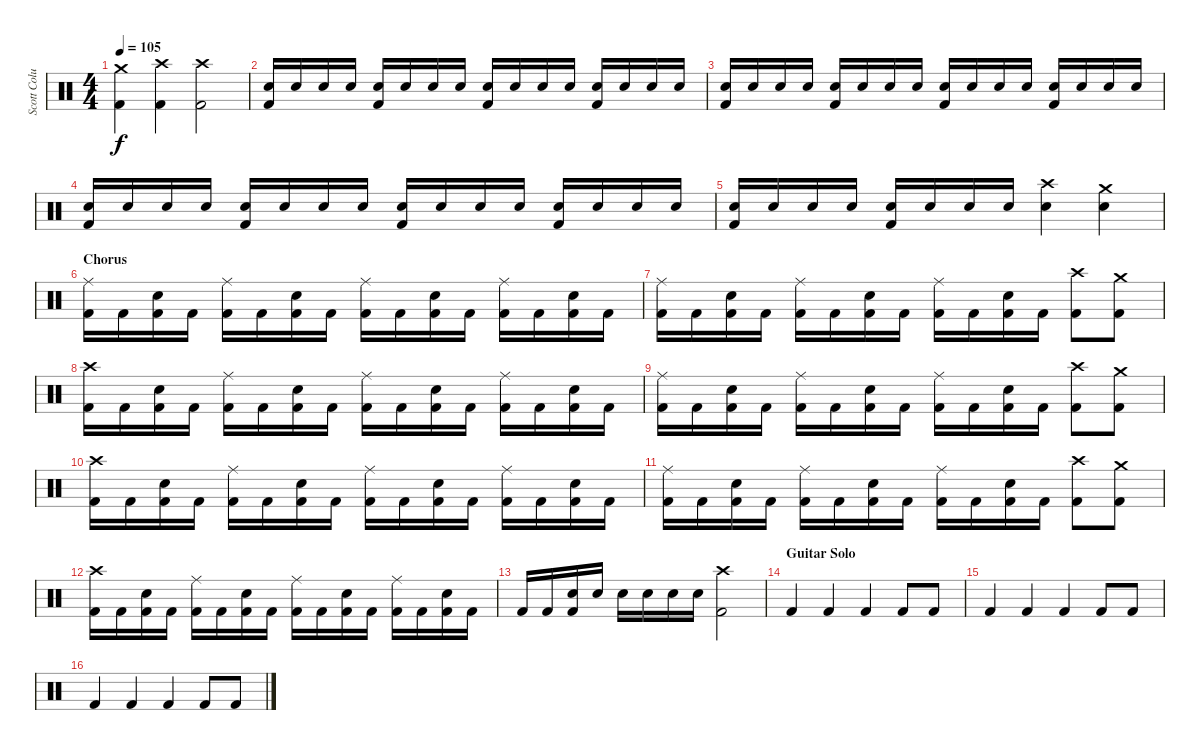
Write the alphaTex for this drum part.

\track ("Scott Columbus" "Scott Colu") {instrument percussion}
\staff {score}
\articulation defaults
\ts (4 4)
\tempo 105
\clef neutral
\ks c
("Crash medium (hit)" "Kick (hit) 2").4{dy f} ("Crash high (hit)" "Kick (hit) 2").4 ("Crash high (hit)" "Kick (hit) 2").2 |
("Kick (hit) 2" "Snare (hit) 2").16 "Snare (hit) 2".16 "Snare (hit) 2".16 "Snare (hit) 2".16 ("Kick (hit) 2" "Snare (hit) 2").16 "Snare (hit) 2".16 "Snare (hit) 2".16 "Snare (hit) 2".16 ("Kick (hit) 2" "Snare (hit) 2").16 "Snare (hit) 2".16 "Snare (hit) 2".16 "Snare (hit) 2".16 ("Kick (hit) 2" "Snare (hit) 2").16 "Snare (hit) 2".16 "Snare (hit) 2".16 "Snare (hit) 2".16 |
("Kick (hit) 2" "Snare (hit) 2").16 "Snare (hit) 2".16 "Snare (hit) 2".16 "Snare (hit) 2".16 ("Kick (hit) 2" "Snare (hit) 2").16 "Snare (hit) 2".16 "Snare (hit) 2".16 "Snare (hit) 2".16 ("Kick (hit) 2" "Snare (hit) 2").16 "Snare (hit) 2".16 "Snare (hit) 2".16 "Snare (hit) 2".16 ("Kick (hit) 2" "Snare (hit) 2").16 "Snare (hit) 2".16 "Snare (hit) 2".16 "Snare (hit) 2".16 |
("Kick (hit) 2" "Snare (hit) 2").16 "Snare (hit) 2".16 "Snare (hit) 2".16 "Snare (hit) 2".16 ("Kick (hit) 2" "Snare (hit) 2").16 "Snare (hit) 2".16 "Snare (hit) 2".16 "Snare (hit) 2".16 ("Kick (hit) 2" "Snare (hit) 2").16 "Snare (hit) 2".16 "Snare (hit) 2".16 "Snare (hit) 2".16 ("Kick (hit) 2" "Snare (hit) 2").16 "Snare (hit) 2".16 "Snare (hit) 2".16 "Snare (hit) 2".16 |
("Kick (hit) 2" "Snare (hit) 2").16 "Snare (hit) 2".16 "Snare (hit) 2".16 "Snare (hit) 2".16 ("Kick (hit) 2" "Snare (hit) 2").16 "Snare (hit) 2".16 "Snare (hit) 2".16 "Snare (hit) 2".16 ("Crash high (hit)" "Snare (hit) 2").4 ("Crash medium (hit)" "Snare (hit) 2").4 |
\section ("" "Chorus")
("Ride (middle)" "Kick (hit) 2").16{volume 10} "Kick (hit) 2".16 ("Snare (hit) 2" "Kick (hit) 2").16 "Kick (hit) 2".16 ("Ride (middle)" "Kick (hit) 2").16 "Kick (hit) 2".16 ("Snare (hit) 2" "Kick (hit) 2").16 "Kick (hit) 2".16 ("Ride (middle)" "Kick (hit) 2").16 "Kick (hit) 2".16 ("Snare (hit) 2" "Kick (hit) 2").16 "Kick (hit) 2".16 ("Ride (middle)" "Kick (hit) 2").16 "Kick (hit) 2".16 ("Snare (hit) 2" "Kick (hit) 2").16 "Kick (hit) 2".16 |
("Ride (middle)" "Kick (hit) 2").16 "Kick (hit) 2".16 ("Snare (hit) 2" "Kick (hit) 2").16 "Kick (hit) 2".16 ("Ride (middle)" "Kick (hit) 2").16 "Kick (hit) 2".16 ("Snare (hit) 2" "Kick (hit) 2").16 "Kick (hit) 2".16 ("Ride (middle)" "Kick (hit) 2").16 "Kick (hit) 2".16 ("Snare (hit) 2" "Kick (hit) 2").16 "Kick (hit) 2".16 ("Crash high (hit)" "Kick (hit) 2").8 ("Crash medium (hit)" "Kick (hit) 2").8 |
("Crash high (hit)" "Kick (hit) 2").16 "Kick (hit) 2".16 ("Snare (hit) 2" "Kick (hit) 2").16 "Kick (hit) 2".16 ("Ride (middle)" "Kick (hit) 2").16 "Kick (hit) 2".16 ("Snare (hit) 2" "Kick (hit) 2").16 "Kick (hit) 2".16 ("Ride (middle)" "Kick (hit) 2").16 "Kick (hit) 2".16 ("Snare (hit) 2" "Kick (hit) 2").16 "Kick (hit) 2".16 ("Ride (middle)" "Kick (hit) 2").16 "Kick (hit) 2".16 ("Snare (hit) 2" "Kick (hit) 2").16 "Kick (hit) 2".16 |
("Ride (middle)" "Kick (hit) 2").16 "Kick (hit) 2".16 ("Snare (hit) 2" "Kick (hit) 2").16 "Kick (hit) 2".16 ("Ride (middle)" "Kick (hit) 2").16 "Kick (hit) 2".16 ("Snare (hit) 2" "Kick (hit) 2").16 "Kick (hit) 2".16 ("Ride (middle)" "Kick (hit) 2").16 "Kick (hit) 2".16 ("Snare (hit) 2" "Kick (hit) 2").16 "Kick (hit) 2".16 ("Crash high (hit)" "Kick (hit) 2").8 ("Crash medium (hit)" "Kick (hit) 2").8 |
("Crash high (hit)" "Kick (hit) 2").16 "Kick (hit) 2".16 ("Snare (hit) 2" "Kick (hit) 2").16 "Kick (hit) 2".16 ("Ride (middle)" "Kick (hit) 2").16 "Kick (hit) 2".16 ("Snare (hit) 2" "Kick (hit) 2").16 "Kick (hit) 2".16 ("Ride (middle)" "Kick (hit) 2").16 "Kick (hit) 2".16 ("Snare (hit) 2" "Kick (hit) 2").16 "Kick (hit) 2".16 ("Ride (middle)" "Kick (hit) 2").16 "Kick (hit) 2".16 ("Snare (hit) 2" "Kick (hit) 2").16 "Kick (hit) 2".16 |
("Ride (middle)" "Kick (hit) 2").16 "Kick (hit) 2".16 ("Snare (hit) 2" "Kick (hit) 2").16 "Kick (hit) 2".16 ("Ride (middle)" "Kick (hit) 2").16 "Kick (hit) 2".16 ("Snare (hit) 2" "Kick (hit) 2").16 "Kick (hit) 2".16 ("Ride (middle)" "Kick (hit) 2").16 "Kick (hit) 2".16 ("Snare (hit) 2" "Kick (hit) 2").16 "Kick (hit) 2".16 ("Crash high (hit)" "Kick (hit) 2").8 ("Crash medium (hit)" "Kick (hit) 2").8 |
("Crash high (hit)" "Kick (hit) 2").16 "Kick (hit) 2".16 ("Snare (hit) 2" "Kick (hit) 2").16 "Kick (hit) 2".16 ("Ride (middle)" "Kick (hit) 2").16 "Kick (hit) 2".16 ("Snare (hit) 2" "Kick (hit) 2").16 "Kick (hit) 2".16 ("Ride (middle)" "Kick (hit) 2").16 "Kick (hit) 2".16 ("Snare (hit) 2" "Kick (hit) 2").16 "Kick (hit) 2".16 ("Ride (middle)" "Kick (hit) 2").16 "Kick (hit) 2".16 ("Snare (hit) 2" "Kick (hit) 2").16 "Kick (hit) 2".16 |
"Kick (hit) 2".16 "Kick (hit) 2".16 ("Snare (hit) 2" "Kick (hit) 2").16 "Snare (hit) 2".16 "Snare (hit) 2".16 "Snare (hit) 2".16 "Snare (hit) 2".16 "Snare (hit) 2".16 ("Crash high (hit)" "Kick (hit) 2").2 |
\section ("" "Guitar Solo")
"Kick (hit) 2".4 "Kick (hit) 2".4 "Kick (hit) 2".4 "Kick (hit) 2".8 "Kick (hit) 2".8 |
"Kick (hit) 2".4 "Kick (hit) 2".4 "Kick (hit) 2".4 "Kick (hit) 2".8 "Kick (hit) 2".8 |
"Kick (hit) 2".4 "Kick (hit) 2".4 "Kick (hit) 2".4 "Kick (hit) 2".8 "Kick (hit) 2".8
